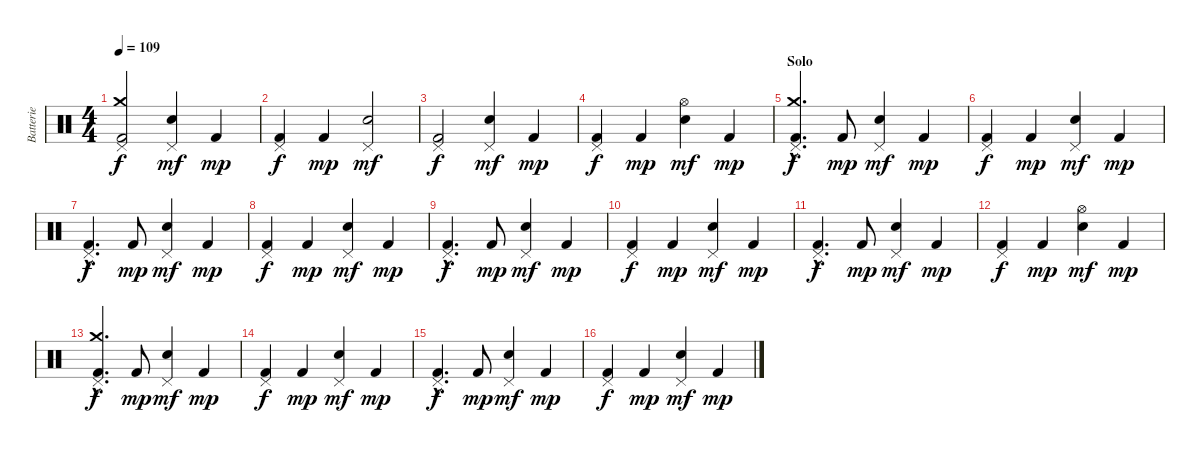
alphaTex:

\track ("Batterie" "Batterie") {instrument percussion}
\staff {score}
\articulation defaults
\ts (4 4)
\tempo 109
\clef neutral
\ks c
("Pedal Hi-Hat (hit)" "Crash medium (hit)" "Kick (hit) 2").2{dy f} ("Pedal Hi-Hat (hit)" "Electric Snare (hit)").4{dy mf} "Kick (hit) 2".4{dy mp} |
("Pedal Hi-Hat (hit)" "Kick (hit) 2").4{dy f} "Kick (hit) 2".4{dy mp} ("Pedal Hi-Hat (hit)" "Electric Snare (hit)").2{dy mf} |
("Pedal Hi-Hat (hit)" "Kick (hit) 2").2{dy f} ("Pedal Hi-Hat (hit)" "Electric Snare (hit)").4{dy mf} "Kick (hit) 2".4{dy mp} |
("Pedal Hi-Hat (hit)" "Kick (hit) 2").4{dy f} "Kick (hit) 2".4{dy mp} ("Hi-Hat (open)" "Electric Snare (hit)").4{dy mf} "Kick (hit) 2".4{dy mp} |
\section ("" "Solo")
("Pedal Hi-Hat (hit)"{hac} "Crash medium (hit)"{hac} "Kick (hit) 2"{hac}).4{d dy f} "Kick (hit) 2".8{dy mp} ("Pedal Hi-Hat (hit)" "Electric Snare (hit)").4{dy mf} "Kick (hit) 2".4{dy mp} |
("Pedal Hi-Hat (hit)" "Kick (hit) 2").4{dy f} "Kick (hit) 2".4{dy mp} ("Pedal Hi-Hat (hit)" "Electric Snare (hit)").4{dy mf} "Kick (hit) 2".4{dy mp} |
("Pedal Hi-Hat (hit)"{hac} "Kick (hit) 2"{hac}).4{d dy f} "Kick (hit) 2".8{dy mp} ("Pedal Hi-Hat (hit)" "Electric Snare (hit)").4{dy mf} "Kick (hit) 2".4{dy mp} |
("Pedal Hi-Hat (hit)" "Kick (hit) 2").4{dy f} "Kick (hit) 2".4{dy mp} ("Pedal Hi-Hat (hit)" "Electric Snare (hit)").4{dy mf} "Kick (hit) 2".4{dy mp} |
("Pedal Hi-Hat (hit)"{hac} "Kick (hit) 2"{hac}).4{d dy f} "Kick (hit) 2".8{dy mp} ("Pedal Hi-Hat (hit)" "Electric Snare (hit)").4{dy mf} "Kick (hit) 2".4{dy mp} |
("Pedal Hi-Hat (hit)" "Kick (hit) 2").4{dy f} "Kick (hit) 2".4{dy mp} ("Pedal Hi-Hat (hit)" "Electric Snare (hit)").4{dy mf} "Kick (hit) 2".4{dy mp} |
("Pedal Hi-Hat (hit)"{hac} "Kick (hit) 2"{hac}).4{d dy f} "Kick (hit) 2".8{dy mp} ("Pedal Hi-Hat (hit)" "Electric Snare (hit)").4{dy mf} "Kick (hit) 2".4{dy mp} |
("Pedal Hi-Hat (hit)" "Kick (hit) 2").4{dy f} "Kick (hit) 2".4{dy mp} ("Hi-Hat (open)" "Electric Snare (hit)").4{dy mf} "Kick (hit) 2".4{dy mp} |
("Pedal Hi-Hat (hit)"{hac} "Crash medium (hit)"{hac} "Kick (hit) 2"{hac}).4{d dy f} "Kick (hit) 2".8{dy mp} ("Pedal Hi-Hat (hit)" "Electric Snare (hit)").4{dy mf} "Kick (hit) 2".4{dy mp} |
("Pedal Hi-Hat (hit)" "Kick (hit) 2").4{dy f} "Kick (hit) 2".4{dy mp} ("Pedal Hi-Hat (hit)" "Electric Snare (hit)").4{dy mf} "Kick (hit) 2".4{dy mp} |
("Pedal Hi-Hat (hit)"{hac} "Kick (hit) 2"{hac}).4{d dy f} "Kick (hit) 2".8{dy mp} ("Pedal Hi-Hat (hit)" "Electric Snare (hit)").4{dy mf} "Kick (hit) 2".4{dy mp} |
("Pedal Hi-Hat (hit)" "Kick (hit) 2").4{dy f} "Kick (hit) 2".4{dy mp} ("Pedal Hi-Hat (hit)" "Electric Snare (hit)").4{dy mf} "Kick (hit) 2".4{dy mp}
